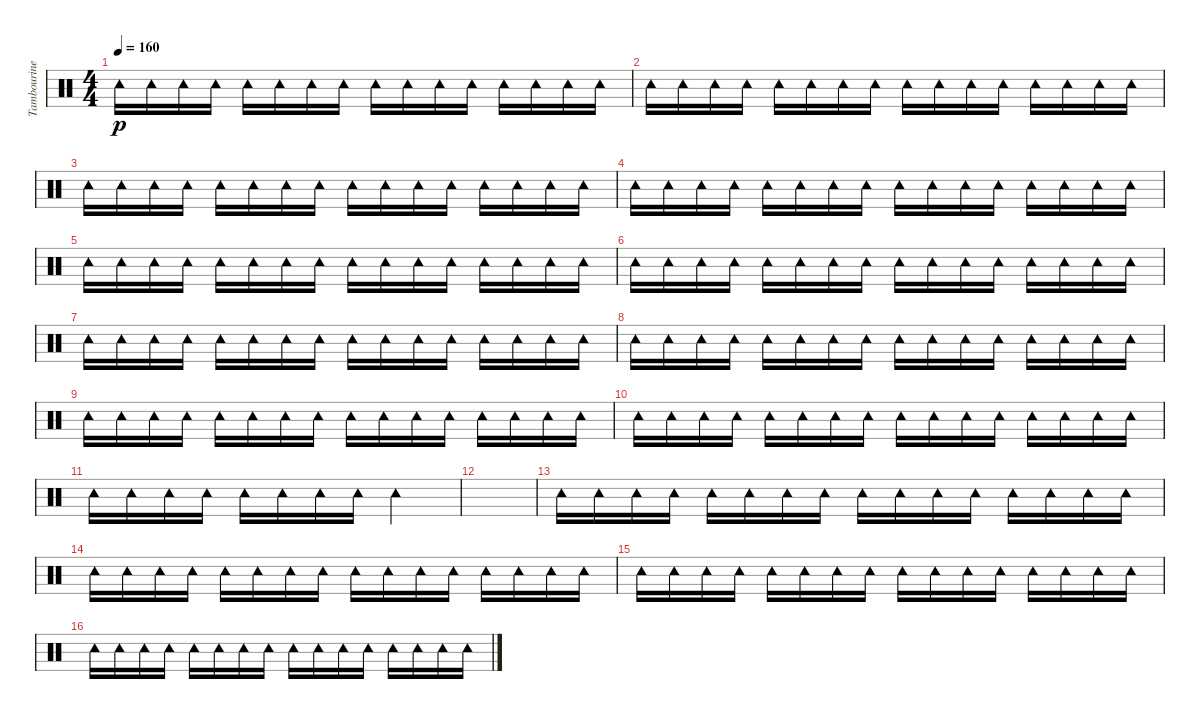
\track ("Tambourine" "Tambourine") {instrument percussion}
\staff {score}
\articulation defaults
\ts (4 4)
\tempo 160
\clef neutral
\ks c "Tambourine (hit)".16{dy p} "Tambourine (hit)".16 "Tambourine (hit)".16 "Tambourine (hit)".16 "Tambourine (hit)".16 "Tambourine (hit)".16 "Tambourine (hit)".16 "Tambourine (hit)".16 "Tambourine (hit)".16 "Tambourine (hit)".16 "Tambourine (hit)".16 "Tambourine (hit)".16 "Tambourine (hit)".16 "Tambourine (hit)".16 "Tambourine (hit)".16 "Tambourine (hit)".16
|
"Tambourine (hit)".16 "Tambourine (hit)".16 "Tambourine (hit)".16 "Tambourine (hit)".16 "Tambourine (hit)".16 "Tambourine (hit)".16 "Tambourine (hit)".16 "Tambourine (hit)".16 "Tambourine (hit)".16 "Tambourine (hit)".16 "Tambourine (hit)".16 "Tambourine (hit)".16 "Tambourine (hit)".16 "Tambourine (hit)".16 "Tambourine (hit)".16 "Tambourine (hit)".16 |
"Tambourine (hit)".16 "Tambourine (hit)".16 "Tambourine (hit)".16 "Tambourine (hit)".16 "Tambourine (hit)".16 "Tambourine (hit)".16 "Tambourine (hit)".16 "Tambourine (hit)".16 "Tambourine (hit)".16 "Tambourine (hit)".16 "Tambourine (hit)".16 "Tambourine (hit)".16 "Tambourine (hit)".16 "Tambourine (hit)".16 "Tambourine (hit)".16 "Tambourine (hit)".16 |
"Tambourine (hit)".16 "Tambourine (hit)".16 "Tambourine (hit)".16 "Tambourine (hit)".16 "Tambourine (hit)".16 "Tambourine (hit)".16 "Tambourine (hit)".16 "Tambourine (hit)".16 "Tambourine (hit)".16 "Tambourine (hit)".16 "Tambourine (hit)".16 "Tambourine (hit)".16 "Tambourine (hit)".16 "Tambourine (hit)".16 "Tambourine (hit)".16 "Tambourine (hit)".16 |
"Tambourine (hit)".16 "Tambourine (hit)".16 "Tambourine (hit)".16 "Tambourine (hit)".16 "Tambourine (hit)".16 "Tambourine (hit)".16 "Tambourine (hit)".16 "Tambourine (hit)".16 "Tambourine (hit)".16 "Tambourine (hit)".16 "Tambourine (hit)".16 "Tambourine (hit)".16 "Tambourine (hit)".16 "Tambourine (hit)".16 "Tambourine (hit)".16 "Tambourine (hit)".16 |
"Tambourine (hit)".16 "Tambourine (hit)".16 "Tambourine (hit)".16 "Tambourine (hit)".16 "Tambourine (hit)".16 "Tambourine (hit)".16 "Tambourine (hit)".16 "Tambourine (hit)".16 "Tambourine (hit)".16 "Tambourine (hit)".16 "Tambourine (hit)".16 "Tambourine (hit)".16 "Tambourine (hit)".16 "Tambourine (hit)".16 "Tambourine (hit)".16 "Tambourine (hit)".16 |
"Tambourine (hit)".16 "Tambourine (hit)".16 "Tambourine (hit)".16 "Tambourine (hit)".16 "Tambourine (hit)".16 "Tambourine (hit)".16 "Tambourine (hit)".16 "Tambourine (hit)".16 "Tambourine (hit)".16 "Tambourine (hit)".16 "Tambourine (hit)".16 "Tambourine (hit)".16 "Tambourine (hit)".16 "Tambourine (hit)".16 "Tambourine (hit)".16 "Tambourine (hit)".16 |
"Tambourine (hit)".16 "Tambourine (hit)".16 "Tambourine (hit)".16 "Tambourine (hit)".16 "Tambourine (hit)".16 "Tambourine (hit)".16 "Tambourine (hit)".16 "Tambourine (hit)".16 "Tambourine (hit)".16 "Tambourine (hit)".16 "Tambourine (hit)".16 "Tambourine (hit)".16 "Tambourine (hit)".16 "Tambourine (hit)".16 "Tambourine (hit)".16 "Tambourine (hit)".16 |
"Tambourine (hit)".16 "Tambourine (hit)".16 "Tambourine (hit)".16 "Tambourine (hit)".16 "Tambourine (hit)".16 "Tambourine (hit)".16 "Tambourine (hit)".16 "Tambourine (hit)".16 "Tambourine (hit)".16 "Tambourine (hit)".16 "Tambourine (hit)".16 "Tambourine (hit)".16 "Tambourine (hit)".16 "Tambourine (hit)".16 "Tambourine (hit)".16 "Tambourine (hit)".16 |
"Tambourine (hit)".16 "Tambourine (hit)".16 "Tambourine (hit)".16 "Tambourine (hit)".16 "Tambourine (hit)".16 "Tambourine (hit)".16 "Tambourine (hit)".16 "Tambourine (hit)".16 "Tambourine (hit)".16 "Tambourine (hit)".16 "Tambourine (hit)".16 "Tambourine (hit)".16 "Tambourine (hit)".16 "Tambourine (hit)".16 "Tambourine (hit)".16 "Tambourine (hit)".16 |
"Tambourine (hit)".16 "Tambourine (hit)".16 "Tambourine (hit)".16 "Tambourine (hit)".16 "Tambourine (hit)".16 "Tambourine (hit)".16 "Tambourine (hit)".16 "Tambourine (hit)".16 "Tambourine (hit)".2 |
|
"Tambourine (hit)".16 "Tambourine (hit)".16 "Tambourine (hit)".16 "Tambourine (hit)".16 "Tambourine (hit)".16 "Tambourine (hit)".16 "Tambourine (hit)".16 "Tambourine (hit)".16 "Tambourine (hit)".16 "Tambourine (hit)".16 "Tambourine (hit)".16 "Tambourine (hit)".16 "Tambourine (hit)".16 "Tambourine (hit)".16 "Tambourine (hit)".16 "Tambourine (hit)".16 |
"Tambourine (hit)".16 "Tambourine (hit)".16 "Tambourine (hit)".16 "Tambourine (hit)".16 "Tambourine (hit)".16 "Tambourine (hit)".16 "Tambourine (hit)".16 "Tambourine (hit)".16 "Tambourine (hit)".16 "Tambourine (hit)".16 "Tambourine (hit)".16 "Tambourine (hit)".16 "Tambourine (hit)".16 "Tambourine (hit)".16 "Tambourine (hit)".16 "Tambourine (hit)".16 |
"Tambourine (hit)".16 "Tambourine (hit)".16 "Tambourine (hit)".16 "Tambourine (hit)".16 "Tambourine (hit)".16 "Tambourine (hit)".16 "Tambourine (hit)".16 "Tambourine (hit)".16 "Tambourine (hit)".16 "Tambourine (hit)".16 "Tambourine (hit)".16 "Tambourine (hit)".16 "Tambourine (hit)".16 "Tambourine (hit)".16 "Tambourine (hit)".16 "Tambourine (hit)".16 |
"Tambourine (hit)".16 "Tambourine (hit)".16 "Tambourine (hit)".16 "Tambourine (hit)".16 "Tambourine (hit)".16 "Tambourine (hit)".16 "Tambourine (hit)".16 "Tambourine (hit)".16 "Tambourine (hit)".16 "Tambourine (hit)".16 "Tambourine (hit)".16 "Tambourine (hit)".16 "Tambourine (hit)".16 "Tambourine (hit)".16 "Tambourine (hit)".16 "Tambourine (hit)".16
